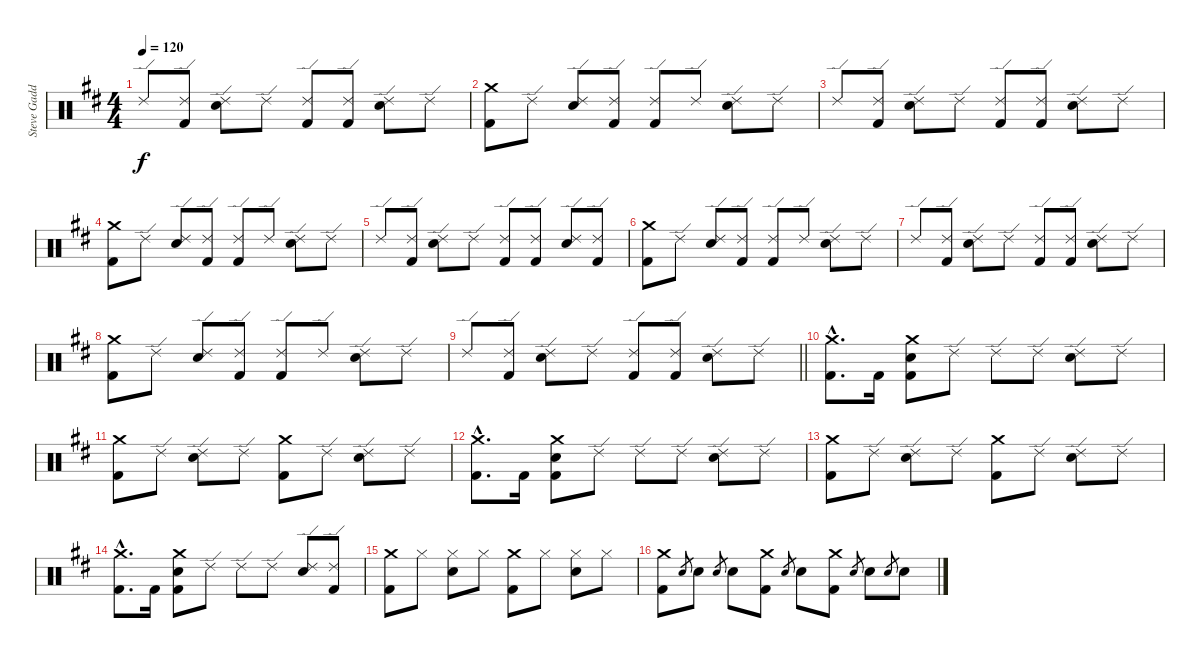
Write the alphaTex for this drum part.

\track ("Steve Gadd Drums" "Steve Gadd") {instrument percussion}
\staff {score}
\articulation defaults
\ts (4 4)
\tempo 120
\clef neutral
\ks d "Ride (edge) 2".8{dy f}
("Ride (edge) 2" "Kick (hit) 2").8 ("Ride (edge) 2" "Snare (hit) 2").8 "Ride (edge) 2".8 ("Ride (edge) 2" "Kick (hit) 2").8 ("Ride (edge) 2" "Kick (hit) 2").8 ("Ride (edge) 2" "Snare (hit) 2").8 "Ride (edge) 2".8 |
("Crash medium (hit)" "Kick (hit) 2").8 "Ride (edge) 2".8 ("Ride (edge) 2" "Snare (hit) 2").8 ("Ride (edge) 2" "Kick (hit) 2").8 ("Ride (edge) 2" "Kick (hit) 2").8 "Ride (edge) 2".8 ("Ride (edge) 2" "Snare (hit) 2").8 "Ride (edge) 2".8 |
"Ride (edge) 2".8 ("Ride (edge) 2" "Kick (hit) 2").8 ("Ride (edge) 2" "Snare (hit) 2").8 "Ride (edge) 2".8 ("Ride (edge) 2" "Kick (hit) 2").8 ("Ride (edge) 2" "Kick (hit) 2").8 ("Ride (edge) 2" "Snare (hit) 2").8 "Ride (edge) 2".8 |
("Crash medium (hit)" "Kick (hit) 2").8 "Ride (edge) 2".8 ("Ride (edge) 2" "Snare (hit) 2").8 ("Ride (edge) 2" "Kick (hit) 2").8 ("Ride (edge) 2" "Kick (hit) 2").8 "Ride (edge) 2".8 ("Ride (edge) 2" "Snare (hit) 2").8 "Ride (edge) 2".8 |
"Ride (edge) 2".8 ("Ride (edge) 2" "Kick (hit) 2").8 ("Ride (edge) 2" "Snare (hit) 2").8 "Ride (edge) 2".8 ("Ride (edge) 2" "Kick (hit) 2").8 ("Ride (edge) 2" "Kick (hit) 2").8 ("Ride (edge) 2" "Snare (hit) 2").8 ("Ride (edge) 2" "Kick (hit) 2").8 |
("Crash medium (hit)" "Kick (hit) 2").8 "Ride (edge) 2".8 ("Ride (edge) 2" "Snare (hit) 2").8 ("Ride (edge) 2" "Kick (hit) 2").8 ("Ride (edge) 2" "Kick (hit) 2").8 "Ride (edge) 2".8 ("Ride (edge) 2" "Snare (hit) 2").8 "Ride (edge) 2".8 |
"Ride (edge) 2".8 ("Ride (edge) 2" "Kick (hit) 2").8 ("Ride (edge) 2" "Snare (hit) 2").8 "Ride (edge) 2".8 ("Ride (edge) 2" "Kick (hit) 2").8 ("Ride (edge) 2" "Kick (hit) 2").8 ("Ride (edge) 2" "Snare (hit) 2").8 "Ride (edge) 2".8 |
("Crash medium (hit)" "Kick (hit) 2").8 "Ride (edge) 2".8 ("Ride (edge) 2" "Snare (hit) 2").8 ("Ride (edge) 2" "Kick (hit) 2").8 ("Ride (edge) 2" "Kick (hit) 2").8 "Ride (edge) 2".8 ("Ride (edge) 2" "Snare (hit) 2").8 "Ride (edge) 2".8 |
\barLineRight lightlight "Ride (edge) 2".8
("Ride (edge) 2" "Kick (hit) 2").8 ("Ride (edge) 2" "Snare (hit) 2").8 "Ride (edge) 2".8 ("Ride (edge) 2" "Kick (hit) 2").8 ("Ride (edge) 2" "Kick (hit) 2").8 ("Ride (edge) 2" "Snare (hit) 2").8 "Ride (edge) 2".8 |
("Crash medium (hit)"{hac} "Kick (hit) 2"{hac}).8{d} "Kick (hit) 2".16 ("Crash medium (hit)" "Snare (hit) 2" "Kick (hit) 2").8 "Ride (edge) 2".8 "Ride (edge) 2".8 "Ride (edge) 2".8 ("Ride (edge) 2" "Snare (hit) 2").8 "Ride (edge) 2".8 |
("Crash medium (hit)" "Kick (hit) 2").8 "Ride (edge) 2".8 ("Ride (edge) 2" "Snare (hit) 2").8 "Ride (edge) 2".8 ("Crash medium (hit)" "Kick (hit) 2").8 "Ride (edge) 2".8 ("Ride (edge) 2" "Snare (hit) 2").8 "Ride (edge) 2".8 |
("Crash medium (hit)"{hac} "Kick (hit) 2"{hac}).8{d} "Kick (hit) 2".16 ("Crash medium (hit)" "Snare (hit) 2" "Kick (hit) 2").8 "Ride (edge) 2".8 "Ride (edge) 2".8 "Ride (edge) 2".8 ("Ride (edge) 2" "Snare (hit) 2").8 "Ride (edge) 2".8 |
("Crash medium (hit)" "Kick (hit) 2").8 "Ride (edge) 2".8 ("Ride (edge) 2" "Snare (hit) 2").8 "Ride (edge) 2".8 ("Crash medium (hit)" "Kick (hit) 2").8 "Ride (edge) 2".8 ("Ride (edge) 2" "Snare (hit) 2").8 "Ride (edge) 2".8 |
("Crash medium (hit)"{hac} "Kick (hit) 2"{hac}).8{d} "Kick (hit) 2".16 ("Crash medium (hit)" "Snare (hit) 2" "Kick (hit) 2").8 "Ride (edge) 2".8 "Ride (edge) 2".8 "Ride (edge) 2".8 ("Ride (edge) 2" "Snare (hit) 2").8 ("Ride (edge) 2" "Kick (hit) 2").8 |
("Crash medium (hit)" "Kick (hit) 2").8 "Hi-Hat (closed)".8 ("Hi-Hat (closed)" "Snare (hit) 2").8 "Hi-Hat (closed)".8 ("Crash medium (hit)" "Kick (hit) 2").8 "Hi-Hat (closed)".8 ("Hi-Hat (closed)" "Snare (hit) 2").8 "Hi-Hat (closed)".8 |
("Crash medium (hit)" "Kick (hit) 2").8 "Snare (hit) 2".8{gr} "Snare (hit) 2".8 "Snare (hit) 2".8{gr} "Snare (hit) 2".8 ("Crash medium (hit)" "Kick (hit) 2").8 "Snare (hit) 2".8{gr} "Snare (hit) 2".8 ("Crash medium (hit)" "Kick (hit) 2").8 "Snare (hit) 2".8{gr} "Snare (hit) 2".8 "Snare (hit) 2".8{gr} "Snare (hit) 2".8
